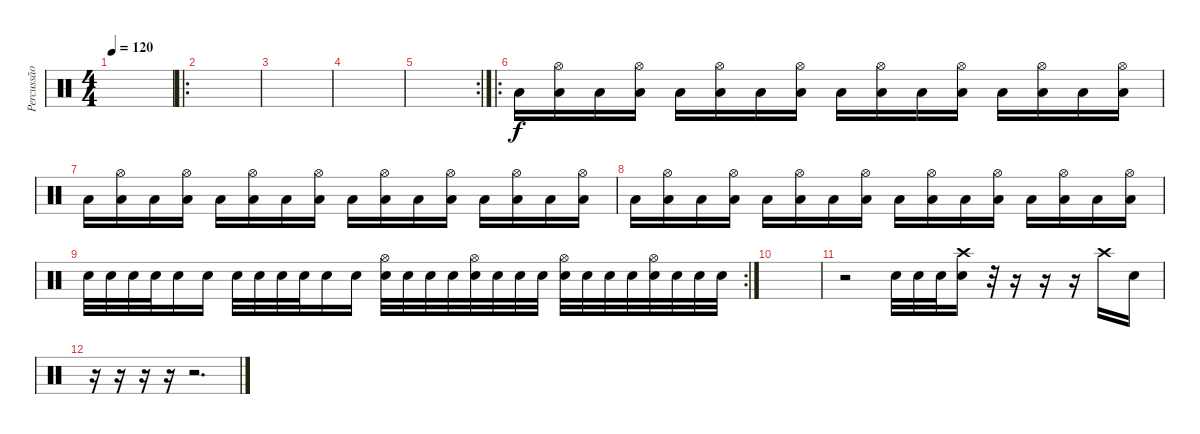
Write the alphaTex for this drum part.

\track ("Percussão" "Percussão") {instrument percussion}
\staff {score}
\articulation defaults
\ts (4 4)
\tempo 120
\clef neutral
\ks c
|
\ro
|
|
|
\rc 2
|
\ro "Low Tom (hit)".16
("Low Tom (hit)" "Hi-Hat (open)").16 "Low Tom (hit)".16 ("Low Tom (hit)" "Hi-Hat (open)").16 "Low Tom (hit)".16 ("Low Tom (hit)" "Hi-Hat (open)").16 "Low Tom (hit)".16 ("Low Tom (hit)" "Hi-Hat (open)").16 "Low Tom (hit)".16 ("Low Tom (hit)" "Hi-Hat (open)").16 "Low Tom (hit)".16 ("Low Tom (hit)" "Hi-Hat (open)").16 "Low Tom (hit)".16 ("Low Tom (hit)" "Hi-Hat (open)").16 "Low Tom (hit)".16 ("Low Tom (hit)" "Hi-Hat (open)").16 |
"Low Tom (hit)".16 ("Low Tom (hit)" "Hi-Hat (open)").16 "Low Tom (hit)".16 ("Low Tom (hit)" "Hi-Hat (open)").16 "Low Tom (hit)".16 ("Low Tom (hit)" "Hi-Hat (open)").16 "Low Tom (hit)".16 ("Low Tom (hit)" "Hi-Hat (open)").16 "Low Tom (hit)".16 ("Low Tom (hit)" "Hi-Hat (open)").16 "Low Tom (hit)".16 ("Low Tom (hit)" "Hi-Hat (open)").16 "Low Tom (hit)".16 ("Low Tom (hit)" "Hi-Hat (open)").16 "Low Tom (hit)".16 ("Low Tom (hit)" "Hi-Hat (open)").16 |
"Low Tom (hit)".16 ("Low Tom (hit)" "Hi-Hat (open)").16 "Low Tom (hit)".16 ("Low Tom (hit)" "Hi-Hat (open)").16 "Low Tom (hit)".16 ("Low Tom (hit)" "Hi-Hat (open)").16 "Low Tom (hit)".16 ("Low Tom (hit)" "Hi-Hat (open)").16 "Low Tom (hit)".16 ("Low Tom (hit)" "Hi-Hat (open)").16 "Low Tom (hit)".16 ("Low Tom (hit)" "Hi-Hat (open)").16 "Low Tom (hit)".16 ("Low Tom (hit)" "Hi-Hat (open)").16 "Low Tom (hit)".16 ("Low Tom (hit)" "Hi-Hat (open)").16 |
\rc 2 "Electric Snare (hit)".32 "Electric Snare (hit)".32 "Electric Snare (hit)".32 "Electric Snare (hit)".32 "Snare (hit) 2".16 "Snare (hit) 2".16 "Electric Snare (hit)".32 "Electric Snare (hit)".32 "Electric Snare (hit)".32 "Electric Snare (hit)".32 "Snare (hit) 2".16 "Snare (hit) 2".16
("Electric Snare (hit)" "Hi-Hat (open)").32 "Electric Snare (hit)".32 "Electric Snare (hit)".32 "Electric Snare (hit)".32 ("Electric Snare (hit)" "Hi-Hat (open)").32 "Electric Snare (hit)".32 "Electric Snare (hit)".32 "Electric Snare (hit)".32 ("Snare (hit) 2" "Hi-Hat (open)").32 "Snare (hit) 2".32 "Snare (hit) 2".32 "Snare (hit) 2".32 ("Snare (hit) 2" "Hi-Hat (open)").32 "Snare (hit) 2".32 "Snare (hit) 2".32 "Snare (hit) 2".32 |
|
r.2 "Snare (hit) 2".32 "Snare (hit) 2".32 "Snare (hit) 2".32 ("Crash high (hit)" "Electric Snare (hit)").16 r.32 r.16 r.16 r.16 "Crash high (hit)".16 "Snare (hit) 2".16 |
r.16 r.16 r.16 r.16 r.2{d}
